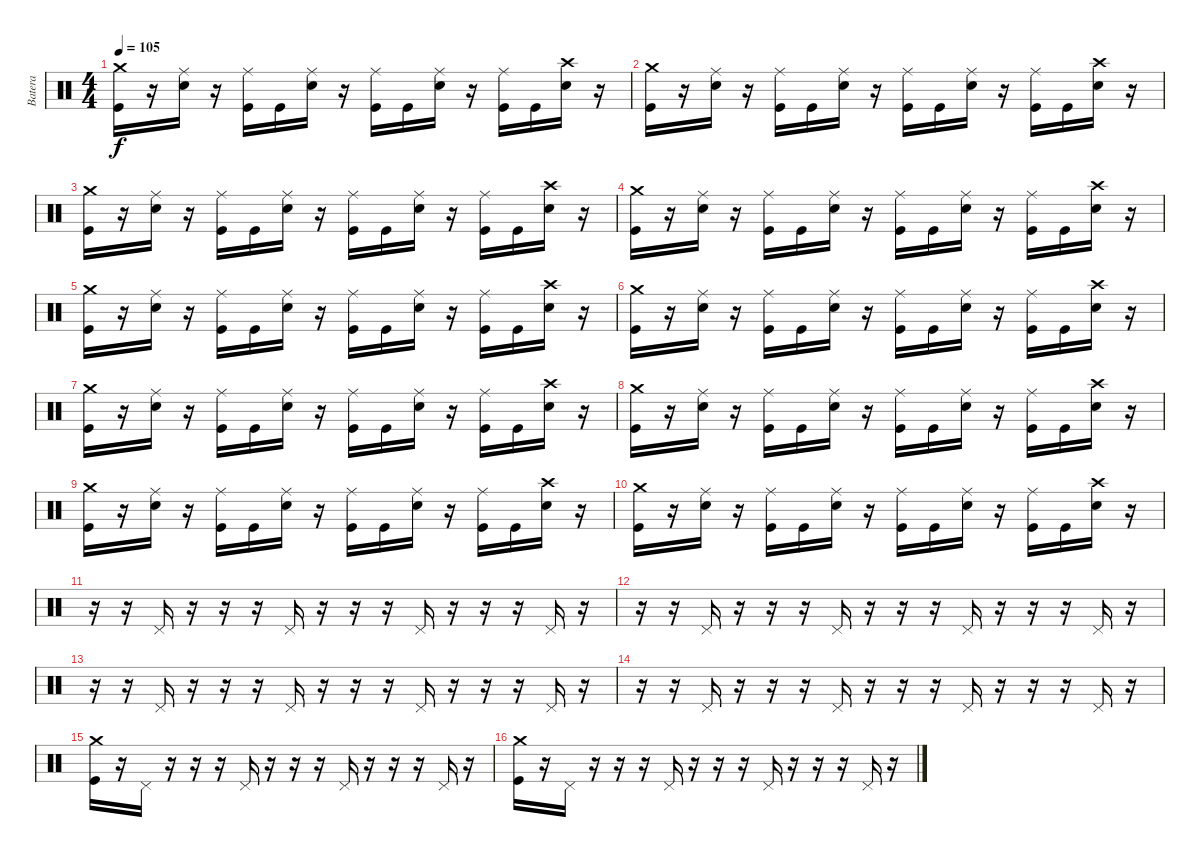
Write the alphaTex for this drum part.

\track ("Batera" "Batera") {instrument percussion}
\staff {score}
\articulation defaults
\ts (4 4)
\tempo 105
\clef neutral
\ks c
("Crash medium (hit)" "Kick (hit)").16{dy f} r.16 ("Ride (middle)" "Snare (hit) 2").16 r.16 ("Ride (middle)" "Kick (hit)").16 "Kick (hit)".16 ("Ride (middle)" "Snare (hit) 2").16 r.16 ("Ride (middle)" "Kick (hit)").16 "Kick (hit)".16 ("Ride (middle)" "Snare (hit) 2").16 r.16 ("Ride (middle)" "Kick (hit)").16 "Kick (hit)".16 ("Crash high (hit)" "Snare (hit) 2").16 r.16 |
("Crash medium (hit)" "Kick (hit)").16 r.16 ("Ride (middle)" "Snare (hit) 2").16 r.16 ("Ride (middle)" "Kick (hit)").16 "Kick (hit)".16 ("Ride (middle)" "Snare (hit) 2").16 r.16 ("Ride (middle)" "Kick (hit)").16 "Kick (hit)".16 ("Ride (middle)" "Snare (hit) 2").16 r.16 ("Ride (middle)" "Kick (hit)").16 "Kick (hit)".16 ("Crash high (hit)" "Snare (hit) 2").16 r.16 |
("Crash medium (hit)" "Kick (hit)").16 r.16 ("Ride (middle)" "Snare (hit) 2").16 r.16 ("Ride (middle)" "Kick (hit)").16 "Kick (hit)".16 ("Ride (middle)" "Snare (hit) 2").16 r.16 ("Ride (middle)" "Kick (hit)").16 "Kick (hit)".16 ("Ride (middle)" "Snare (hit) 2").16 r.16 ("Ride (middle)" "Kick (hit)").16 "Kick (hit)".16 ("Crash high (hit)" "Snare (hit) 2").16 r.16 |
("Crash medium (hit)" "Kick (hit)").16 r.16 ("Ride (middle)" "Snare (hit) 2").16 r.16 ("Ride (middle)" "Kick (hit)").16 "Kick (hit)".16 ("Ride (middle)" "Snare (hit) 2").16 r.16 ("Ride (middle)" "Kick (hit)").16 "Kick (hit)".16 ("Ride (middle)" "Snare (hit) 2").16 r.16 ("Ride (middle)" "Kick (hit)").16 "Kick (hit)".16 ("Crash high (hit)" "Snare (hit) 2").16 r.16 |
("Crash medium (hit)" "Kick (hit)").16 r.16 ("Ride (middle)" "Snare (hit) 2").16 r.16 ("Ride (middle)" "Kick (hit)").16 "Kick (hit)".16 ("Ride (middle)" "Snare (hit) 2").16 r.16 ("Ride (middle)" "Kick (hit)").16 "Kick (hit)".16 ("Ride (middle)" "Snare (hit) 2").16 r.16 ("Ride (middle)" "Kick (hit)").16 "Kick (hit)".16 ("Crash high (hit)" "Snare (hit) 2").16 r.16 |
("Crash medium (hit)" "Kick (hit)").16 r.16 ("Ride (middle)" "Snare (hit) 2").16 r.16 ("Ride (middle)" "Kick (hit)").16 "Kick (hit)".16 ("Ride (middle)" "Snare (hit) 2").16 r.16 ("Ride (middle)" "Kick (hit)").16 "Kick (hit)".16 ("Ride (middle)" "Snare (hit) 2").16 r.16 ("Ride (middle)" "Kick (hit)").16 "Kick (hit)".16 ("Crash high (hit)" "Snare (hit) 2").16 r.16 |
("Crash medium (hit)" "Kick (hit)").16 r.16 ("Ride (middle)" "Snare (hit) 2").16 r.16 ("Ride (middle)" "Kick (hit)").16 "Kick (hit)".16 ("Ride (middle)" "Snare (hit) 2").16 r.16 ("Ride (middle)" "Kick (hit)").16 "Kick (hit)".16 ("Ride (middle)" "Snare (hit) 2").16 r.16 ("Ride (middle)" "Kick (hit)").16 "Kick (hit)".16 ("Crash high (hit)" "Snare (hit) 2").16 r.16 |
("Crash medium (hit)" "Kick (hit)").16 r.16 ("Ride (middle)" "Snare (hit) 2").16 r.16 ("Ride (middle)" "Kick (hit)").16 "Kick (hit)".16 ("Ride (middle)" "Snare (hit) 2").16 r.16 ("Ride (middle)" "Kick (hit)").16 "Kick (hit)".16 ("Ride (middle)" "Snare (hit) 2").16 r.16 ("Ride (middle)" "Kick (hit)").16 "Kick (hit)".16 ("Crash high (hit)" "Snare (hit) 2").16 r.16 |
("Crash medium (hit)" "Kick (hit)").16 r.16 ("Ride (middle)" "Snare (hit) 2").16 r.16 ("Ride (middle)" "Kick (hit)").16 "Kick (hit)".16 ("Ride (middle)" "Snare (hit) 2").16 r.16 ("Ride (middle)" "Kick (hit)").16 "Kick (hit)".16 ("Ride (middle)" "Snare (hit) 2").16 r.16 ("Ride (middle)" "Kick (hit)").16 "Kick (hit)".16 ("Crash high (hit)" "Snare (hit) 2").16 r.16 |
("Crash medium (hit)" "Kick (hit)").16 r.16 ("Ride (middle)" "Snare (hit) 2").16 r.16 ("Ride (middle)" "Kick (hit)").16 "Kick (hit)".16 ("Ride (middle)" "Snare (hit) 2").16 r.16 ("Ride (middle)" "Kick (hit)").16 "Kick (hit)".16 ("Ride (middle)" "Snare (hit) 2").16 r.16 ("Ride (middle)" "Kick (hit)").16 "Kick (hit)".16 ("Crash high (hit)" "Snare (hit) 2").16 r.16 |
r.16 r.16 "Pedal Hi-Hat (hit)".16 r.16 r.16 r.16 "Pedal Hi-Hat (hit)".16 r.16 r.16 r.16 "Pedal Hi-Hat (hit)".16 r.16 r.16 r.16 "Pedal Hi-Hat (hit)".16 r.16 |
r.16 r.16 "Pedal Hi-Hat (hit)".16 r.16 r.16 r.16 "Pedal Hi-Hat (hit)".16 r.16 r.16 r.16 "Pedal Hi-Hat (hit)".16 r.16 r.16 r.16 "Pedal Hi-Hat (hit)".16 r.16 |
r.16 r.16 "Pedal Hi-Hat (hit)".16 r.16 r.16 r.16 "Pedal Hi-Hat (hit)".16 r.16 r.16 r.16 "Pedal Hi-Hat (hit)".16 r.16 r.16 r.16 "Pedal Hi-Hat (hit)".16 r.16 |
r.16 r.16 "Pedal Hi-Hat (hit)".16 r.16 r.16 r.16 "Pedal Hi-Hat (hit)".16 r.16 r.16 r.16 "Pedal Hi-Hat (hit)".16 r.16 r.16 r.16 "Pedal Hi-Hat (hit)".16 r.16 |
("Crash medium (hit)" "Kick (hit)").16 r.16 "Pedal Hi-Hat (hit)".16 r.16 r.16 r.16 "Pedal Hi-Hat (hit)".16 r.16 r.16 r.16 "Pedal Hi-Hat (hit)".16 r.16 r.16 r.16 "Pedal Hi-Hat (hit)".16 r.16 |
("Crash medium (hit)" "Kick (hit)").16 r.16 "Pedal Hi-Hat (hit)".16 r.16 r.16 r.16 "Pedal Hi-Hat (hit)".16 r.16 r.16 r.16 "Pedal Hi-Hat (hit)".16 r.16 r.16 r.16 "Pedal Hi-Hat (hit)".16 r.16
